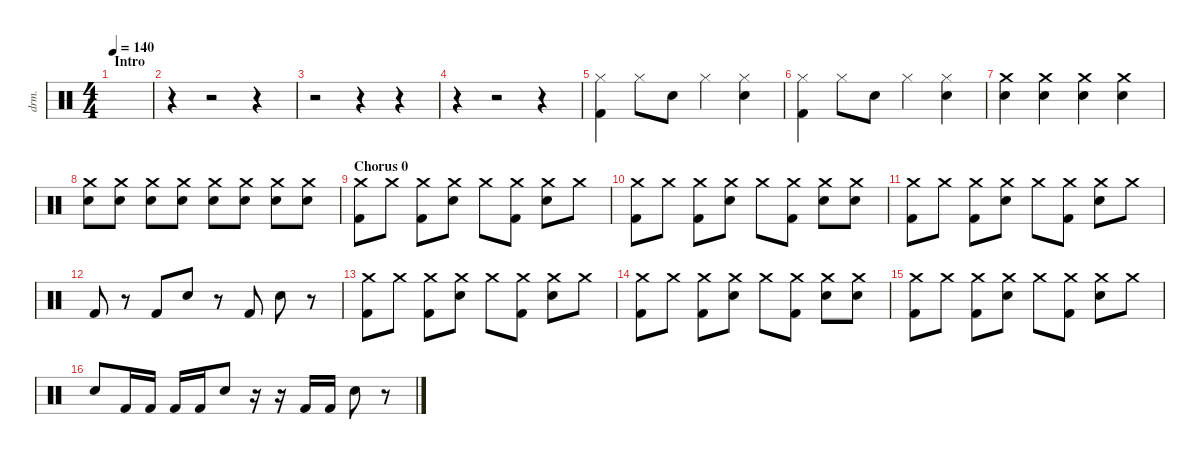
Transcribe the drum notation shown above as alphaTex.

\defaultSystemsLayout 4
\hideDynamics
\bracketExtendMode nobrackets
\otherSystemsTrackNameOrientation horizontal
\track ("Drumkit" "drm.") {instrument percussion}
\staff {score}
\articulation defaults
\ts (4 4)
\section ("" "Intro")
\tempo 140
\clef neutral
\ks c
|
r.4{beam Down} r.2{beam Down} r.4{beam Down} |
r.2{beam Down} r.4{beam Down} r.4{beam Down} |
r.4{beam Down} r.2{beam Down} r.4{beam Down} |
("Hi-Hat (closed)" "Kick (hit) 2").4{beam Down} "Hi-Hat (closed)".8{beam Down} "Snare (hit) 2".8{beam Down} "Hi-Hat (closed)".4{beam Down} ("Hi-Hat (closed)" "Snare (hit) 2").4{beam Down} |
("Hi-Hat (closed)" "Kick (hit) 2").4{beam Down} "Hi-Hat (closed)".8{beam Down} "Snare (hit) 2".8{beam Down} "Hi-Hat (closed)".4{beam Down} ("Hi-Hat (closed)" "Snare (hit) 2").4{beam Down} |
("Snare (hit) 2" "Crash medium (hit)").4{beam Down} ("Snare (hit) 2" "Crash medium (hit)").4{beam Down} ("Snare (hit) 2" "Crash medium (hit)").4{beam Down} ("Snare (hit) 2" "Crash medium (hit)").4{beam Down} |
("Snare (hit) 2" "Crash medium (hit)").8{beam Down} ("Snare (hit) 2" "Crash medium (hit)").8{beam Down} ("Snare (hit) 2" "Crash medium (hit)").8{beam Down} ("Snare (hit) 2" "Crash medium (hit)").8{beam Down} ("Snare (hit) 2" "Crash medium (hit)").8{beam Down} ("Snare (hit) 2" "Crash medium (hit)").8{beam Down} ("Snare (hit) 2" "Crash medium (hit)").8{beam Down} ("Snare (hit) 2" "Crash medium (hit)").8{beam Down} |
\section ("" "Chorus 0")
("Crash medium (hit)" "Kick (hit) 2").8{beam Down} "Crash medium (hit)".8{beam Down} ("Crash medium (hit)" "Kick (hit) 2").8{beam Down} ("Snare (hit) 2" "Crash medium (hit)").8{beam Down} "Crash medium (hit)".8{beam Down} ("Crash medium (hit)" "Kick (hit) 2").8{beam Down} ("Crash medium (hit)" "Snare (hit) 2").8{beam Down} "Crash medium (hit)".8{beam Down} |
("Crash medium (hit)" "Kick (hit) 2").8{beam Down} "Crash medium (hit)".8{beam Down} ("Crash medium (hit)" "Kick (hit) 2").8{beam Down} ("Snare (hit) 2" "Crash medium (hit)").8{beam Down} "Crash medium (hit)".8{beam Down} ("Crash medium (hit)" "Kick (hit) 2").8{beam Down} ("Crash medium (hit)" "Snare (hit) 2").8{beam Down} ("Crash medium (hit)" "Snare (hit) 2").8{beam Down} |
("Crash medium (hit)" "Kick (hit) 2").8{beam Down} "Crash medium (hit)".8{beam Down} ("Crash medium (hit)" "Kick (hit) 2").8{beam Down} ("Snare (hit) 2" "Crash medium (hit)").8{beam Down} "Crash medium (hit)".8{beam Down} ("Crash medium (hit)" "Kick (hit) 2").8{beam Down} ("Crash medium (hit)" "Snare (hit) 2").8{beam Down} "Crash medium (hit)".8{beam Down} |
"Kick (hit) 2".8{beam Up} r.8{beam Up} "Kick (hit) 2".8{beam Up} "Snare (hit) 2".8{beam Up} r.8{beam Up} "Kick (hit) 2".8{beam Up} "Snare (hit) 2".8{beam Down} r.8{beam Down} |
("Crash medium (hit)" "Kick (hit) 2").8{beam Down} "Crash medium (hit)".8{beam Down} ("Crash medium (hit)" "Kick (hit) 2").8{beam Down} ("Snare (hit) 2" "Crash medium (hit)").8{beam Down} "Crash medium (hit)".8{beam Down} ("Crash medium (hit)" "Kick (hit) 2").8{beam Down} ("Crash medium (hit)" "Snare (hit) 2").8{beam Down} "Crash medium (hit)".8{beam Down} |
("Crash medium (hit)" "Kick (hit) 2").8{beam Down} "Crash medium (hit)".8{beam Down} ("Crash medium (hit)" "Kick (hit) 2").8{beam Down} ("Snare (hit) 2" "Crash medium (hit)").8{beam Down} "Crash medium (hit)".8{beam Down} ("Crash medium (hit)" "Kick (hit) 2").8{beam Down} ("Crash medium (hit)" "Snare (hit) 2").8{beam Down} ("Crash medium (hit)" "Snare (hit) 2").8{beam Down} |
("Crash medium (hit)" "Kick (hit) 2").8{beam Down} "Crash medium (hit)".8{beam Down} ("Crash medium (hit)" "Kick (hit) 2").8{beam Down} ("Snare (hit) 2" "Crash medium (hit)").8{beam Down} "Crash medium (hit)".8{beam Down} ("Crash medium (hit)" "Kick (hit) 2").8{beam Down} ("Crash medium (hit)" "Snare (hit) 2").8{beam Down} "Crash medium (hit)".8{beam Down} |
"Snare (hit) 2".8{beam Up} "Kick (hit) 2".16{beam Up} "Kick (hit) 2".16{beam Up} "Kick (hit) 2".16{beam Up} "Kick (hit) 2".16{beam Up} "Snare (hit) 2".8{beam Up} r.16{beam Up} r.16{beam Up} "Kick (hit) 2".16{dy f beam Up} "Kick (hit) 2".16{beam Up} "Snare (hit) 2".8{dy mf beam Down} r.8{beam Down}
